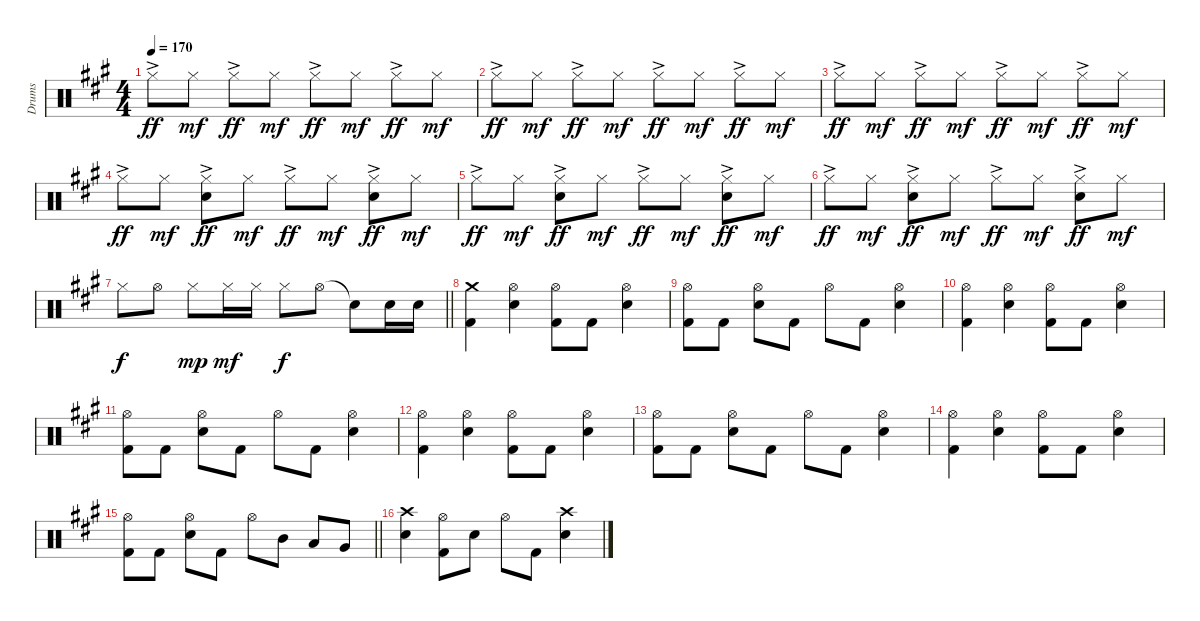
\track ("Drums" "Drums") {instrument percussion}
\staff {score}
\articulation defaults
\ts (4 4)
\tempo 170
\clef neutral
\ks f#minor "Hi-Hat (closed)"{ac}.8{dy ff} "Hi-Hat (closed)".8{dy mf} "Hi-Hat (closed)"{ac}.8{dy ff} "Hi-Hat (closed)".8{dy mf} "Hi-Hat (closed)"{ac}.8{dy ff} "Hi-Hat (closed)".8{dy mf} "Hi-Hat (closed)"{ac}.8{dy ff} "Hi-Hat (closed)".8{dy mf}
|
"Hi-Hat (closed)"{ac}.8{dy ff} "Hi-Hat (closed)".8{dy mf} "Hi-Hat (closed)"{ac}.8{dy ff} "Hi-Hat (closed)".8{dy mf} "Hi-Hat (closed)"{ac}.8{dy ff} "Hi-Hat (closed)".8{dy mf} "Hi-Hat (closed)"{ac}.8{dy ff} "Hi-Hat (closed)".8{dy mf} |
"Hi-Hat (closed)"{ac}.8{dy ff} "Hi-Hat (closed)".8{dy mf} "Hi-Hat (closed)"{ac}.8{dy ff} "Hi-Hat (closed)".8{dy mf} "Hi-Hat (closed)"{ac}.8{dy ff} "Hi-Hat (closed)".8{dy mf} "Hi-Hat (closed)"{ac}.8{dy ff} "Hi-Hat (closed)".8{dy mf} |
"Hi-Hat (closed)"{ac}.8{dy ff} "Hi-Hat (closed)".8{dy mf} ("Hi-Hat (closed)"{ac} "Snare (hit) 2").8{dy ff} "Hi-Hat (closed)".8{dy mf} "Hi-Hat (closed)"{ac}.8{dy ff} "Hi-Hat (closed)".8{dy mf} ("Hi-Hat (closed)"{ac} "Snare (hit) 2").8{dy ff} "Hi-Hat (closed)".8{dy mf} |
"Hi-Hat (closed)"{ac}.8{dy ff} "Hi-Hat (closed)".8{dy mf} ("Hi-Hat (closed)"{ac} "Snare (hit) 2").8{dy ff} "Hi-Hat (closed)".8{dy mf} "Hi-Hat (closed)"{ac}.8{dy ff} "Hi-Hat (closed)".8{dy mf} ("Hi-Hat (closed)"{ac} "Snare (hit) 2").8{dy ff} "Hi-Hat (closed)".8{dy mf} |
"Hi-Hat (closed)"{ac}.8{dy ff} "Hi-Hat (closed)".8{dy mf} ("Hi-Hat (closed)"{ac} "Snare (hit) 2").8{dy ff} "Hi-Hat (closed)".8{dy mf} "Hi-Hat (closed)"{ac}.8{dy ff} "Hi-Hat (closed)".8{dy mf} ("Hi-Hat (closed)"{ac} "Snare (hit) 2").8{dy ff} "Hi-Hat (closed)".8{dy mf} |
\barLineRight lightlight "Hi-Hat (closed)".8{dy f} "Hi-Hat (open)".8 "Hi-Hat (closed)".8{dy mp} "Hi-Hat (closed)".16{dy mf} "Hi-Hat (closed)".16 "Hi-Hat (closed)".8{dy f} "Hi-Hat (open)".8 "Snare (hit)"{t}.8 "Snare (hit) 2".16 "Snare (hit) 2".16
|
("Crash medium (hit)" "Kick (hit) 2").4 ("Hi-Hat (open)" "Snare (hit) 2").4 ("Hi-Hat (open)" "Kick (hit) 2").8 "Kick (hit) 2".8 ("Hi-Hat (open)" "Snare (hit) 2").4 |
("Hi-Hat (open)" "Kick (hit) 2").8 "Kick (hit) 2".8 ("Hi-Hat (open)" "Snare (hit) 2").8 "Kick (hit) 2".8 "Hi-Hat (open)".8 "Kick (hit) 2".8 ("Hi-Hat (open)" "Snare (hit) 2").4 |
("Hi-Hat (open)" "Kick (hit) 2").4 ("Hi-Hat (open)" "Snare (hit) 2").4 ("Hi-Hat (open)" "Kick (hit) 2").8 "Kick (hit) 2".8 ("Hi-Hat (open)" "Snare (hit) 2").4 |
("Hi-Hat (open)" "Kick (hit) 2").8 "Kick (hit) 2".8 ("Hi-Hat (open)" "Snare (hit) 2").8 "Kick (hit) 2".8 "Hi-Hat (open)".8 "Kick (hit) 2".8 ("Hi-Hat (open)" "Snare (hit) 2").4 |
("Hi-Hat (open)" "Kick (hit) 2").4 ("Hi-Hat (open)" "Snare (hit) 2").4 ("Hi-Hat (open)" "Kick (hit) 2").8 "Kick (hit) 2".8 ("Hi-Hat (open)" "Snare (hit) 2").4 |
("Hi-Hat (open)" "Kick (hit) 2").8 "Kick (hit) 2".8 ("Hi-Hat (open)" "Snare (hit) 2").8 "Kick (hit) 2".8 "Hi-Hat (open)".8 "Kick (hit) 2".8 ("Hi-Hat (open)" "Snare (hit) 2").4 |
("Hi-Hat (open)" "Kick (hit) 2").4 ("Hi-Hat (open)" "Snare (hit) 2").4 ("Hi-Hat (open)" "Kick (hit) 2").8 "Kick (hit) 2".8 ("Hi-Hat (open)" "Snare (hit) 2").4 |
\barLineRight lightlight
("Hi-Hat (open)" "Kick (hit) 2").8 "Kick (hit) 2".8 ("Hi-Hat (open)" "Snare (hit) 2").8 "Kick (hit) 2".8 "Hi-Hat (open)".8 "Mid Tom (hit)".8 "Low Tom (hit)".8 "Very Low Tom (hit)".8 |
("Crash high (hit)" "Snare (hit) 2").4 ("Hi-Hat (open)" "Kick (hit) 2").8 "Snare (hit) 2".8 "Hi-Hat (open)".8 "Kick (hit) 2".8 ("Crash high (hit)" "Snare (hit) 2").4
